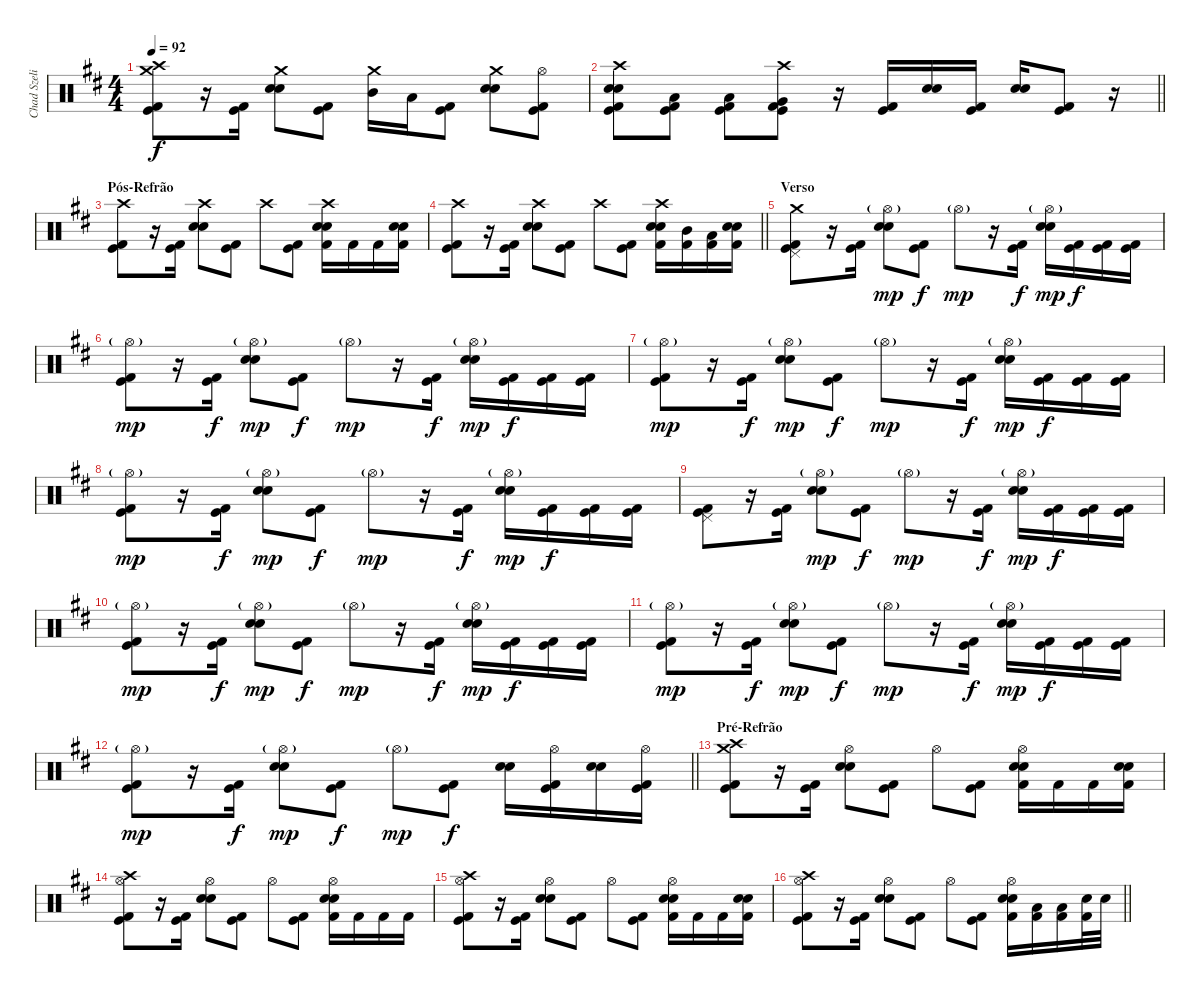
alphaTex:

\track ("Chad Szeliga" "Chad Szeli") {instrument percussion}
\staff {score}
\articulation defaults
\ts (4 4)
\tempo 92
\clef neutral
\ks d
("Crash high (hit)" "Kick (hit) 2" "Kick (hit)" "Crash medium (hit)").8{dy f} r.16 ("Kick (hit) 2" "Kick (hit)").16{beam Down} ("Crash medium (hit)" "Snare (hit) 2" "Snare (hit) 2").8 ("Kick (hit) 2" "Kick (hit)").8 ("Crash medium (hit)" "Mid Tom (hit)").16 "Low Tom (hit)".16 ("Kick (hit) 2" "Kick (hit)").8 ("Crash medium (hit)" "Snare (hit) 2" "Snare (hit) 2").8 ("Kick (hit) 2" "Kick (hit)" "Hi-Hat (open)").8 |
\barLineRight lightlight
("Crash high (hit)" "Kick (hit) 2" "Kick (hit)" "Snare (hit) 2" "Snare (hit) 2").8 ("Kick (hit) 2" "Kick (hit)" "Low Tom (hit)").8 ("Kick (hit) 2" "Kick (hit)" "Low Tom (hit)").8 ("Crash high (hit)" "Kick (hit) 2" "Kick (hit)" "Very Low Tom (hit)").8 r.16 ("Kick (hit) 2" "Kick (hit)").16 ("Snare (hit) 2" "Snare (hit) 2").16 ("Kick (hit) 2" "Kick (hit)").16 ("Snare (hit) 2" "Snare (hit) 2").16 ("Kick (hit) 2" "Kick (hit)").8 r.16 |
\section ("" "Pós-Refrão")
("Crash high (hit)" "Kick (hit) 2" "Kick (hit)").8 r.16 ("Kick (hit) 2" "Kick (hit)").16{beam Down} ("Crash high (hit)" "Snare (hit) 2" "Snare (hit) 2").8 ("Kick (hit) 2" "Kick (hit)").8 "Crash high (hit)".8 ("Kick (hit) 2" "Kick (hit)").8 ("Crash high (hit)" "Kick (hit) 2" "Snare (hit) 2" "Snare (hit) 2").16 "Kick (hit) 2".16 "Kick (hit) 2".16 ("Kick (hit) 2" "Snare (hit) 2" "Snare (hit) 2").16 |
\barLineRight lightlight
("Crash high (hit)" "Kick (hit) 2" "Kick (hit)").8 r.16 ("Kick (hit) 2" "Kick (hit)").16{beam Down} ("Crash high (hit)" "Snare (hit) 2" "Snare (hit) 2").8 ("Kick (hit) 2" "Kick (hit)").8 "Crash high (hit)".8 ("Kick (hit) 2" "Kick (hit)").8 ("Crash high (hit)" "Kick (hit) 2" "Snare (hit) 2" "Snare (hit) 2").16 ("Kick (hit) 2" "Mid Tom (hit)").16 ("Kick (hit) 2" "Low Tom (hit)").16 ("Kick (hit) 2" "Snare (hit) 2" "Snare (hit) 2").16 |
\section ("" "Verso")
("Crash medium (hit)" "Kick (hit) 2" "Kick (hit)" "Pedal Hi-Hat (hit)").8 r.16 ("Kick (hit) 2" "Kick (hit)").16{beam Down} ("Snare (hit) 2" "Snare (hit) 2" "Hi-Hat (open)"{g}).8{dy mp} ("Kick (hit) 2" "Kick (hit)").8{dy f} "Hi-Hat (open)"{g}.8{dy mp} r.16 ("Kick (hit) 2" "Kick (hit)").16{dy f beam Down} ("Snare (hit) 2" "Snare (hit) 2" "Hi-Hat (open)"{g}).16{dy mp} ("Kick (hit) 2" "Kick (hit)").16{dy f} ("Kick (hit) 2" "Kick (hit)").16 ("Kick (hit) 2" "Kick (hit)").16 |
("Kick (hit) 2" "Kick (hit)" "Hi-Hat (open)"{g}).8{dy mp} r.16 ("Kick (hit) 2" "Kick (hit)").16{dy f beam Down} ("Snare (hit) 2" "Snare (hit) 2" "Hi-Hat (open)"{g}).8{dy mp} ("Kick (hit) 2" "Kick (hit)").8{dy f} "Hi-Hat (open)"{g}.8{dy mp} r.16 ("Kick (hit) 2" "Kick (hit)").16{dy f beam Down} ("Snare (hit) 2" "Snare (hit) 2" "Hi-Hat (open)"{g}).16{dy mp} ("Kick (hit) 2" "Kick (hit)").16{dy f} ("Kick (hit) 2" "Kick (hit)").16 ("Kick (hit) 2" "Kick (hit)").16 |
("Kick (hit) 2" "Kick (hit)" "Hi-Hat (open)"{g}).8{dy mp} r.16 ("Kick (hit) 2" "Kick (hit)").16{dy f beam Down} ("Snare (hit) 2" "Snare (hit) 2" "Hi-Hat (open)"{g}).8{dy mp} ("Kick (hit) 2" "Kick (hit)").8{dy f} "Hi-Hat (open)"{g}.8{dy mp} r.16 ("Kick (hit) 2" "Kick (hit)").16{dy f beam Down} ("Snare (hit) 2" "Snare (hit) 2" "Hi-Hat (open)"{g}).16{dy mp} ("Kick (hit) 2" "Kick (hit)").16{dy f} ("Kick (hit) 2" "Kick (hit)").16 ("Kick (hit) 2" "Kick (hit)").16 |
("Kick (hit) 2" "Kick (hit)" "Hi-Hat (open)"{g}).8{dy mp} r.16 ("Kick (hit) 2" "Kick (hit)").16{dy f beam Down} ("Snare (hit) 2" "Snare (hit) 2" "Hi-Hat (open)"{g}).8{dy mp} ("Kick (hit) 2" "Kick (hit)").8{dy f} "Hi-Hat (open)"{g}.8{dy mp} r.16 ("Kick (hit) 2" "Kick (hit)").16{dy f beam Down} ("Snare (hit) 2" "Snare (hit) 2" "Hi-Hat (open)"{g}).16{dy mp} ("Kick (hit) 2" "Kick (hit)").16{dy f} ("Kick (hit) 2" "Kick (hit)").16 ("Kick (hit) 2" "Kick (hit)").16 |
("Kick (hit) 2" "Kick (hit)" "Pedal Hi-Hat (hit)").8 r.16 ("Kick (hit) 2" "Kick (hit)").16{beam Down} ("Snare (hit) 2" "Snare (hit) 2" "Hi-Hat (open)"{g}).8{dy mp} ("Kick (hit) 2" "Kick (hit)").8{dy f} "Hi-Hat (open)"{g}.8{dy mp} r.16 ("Kick (hit) 2" "Kick (hit)").16{dy f beam Down} ("Snare (hit) 2" "Snare (hit) 2" "Hi-Hat (open)"{g}).16{dy mp} ("Kick (hit) 2" "Kick (hit)").16{dy f} ("Kick (hit) 2" "Kick (hit)").16 ("Kick (hit) 2" "Kick (hit)").16 |
("Kick (hit) 2" "Kick (hit)" "Hi-Hat (open)"{g}).8{dy mp} r.16 ("Kick (hit) 2" "Kick (hit)").16{dy f beam Down} ("Snare (hit) 2" "Snare (hit) 2" "Hi-Hat (open)"{g}).8{dy mp} ("Kick (hit) 2" "Kick (hit)").8{dy f} "Hi-Hat (open)"{g}.8{dy mp} r.16 ("Kick (hit) 2" "Kick (hit)").16{dy f beam Down} ("Snare (hit) 2" "Snare (hit) 2" "Hi-Hat (open)"{g}).16{dy mp} ("Kick (hit) 2" "Kick (hit)").16{dy f} ("Kick (hit) 2" "Kick (hit)").16 ("Kick (hit) 2" "Kick (hit)").16 |
("Kick (hit) 2" "Kick (hit)" "Hi-Hat (open)"{g}).8{dy mp} r.16 ("Kick (hit) 2" "Kick (hit)").16{dy f beam Down} ("Snare (hit) 2" "Snare (hit) 2" "Hi-Hat (open)"{g}).8{dy mp} ("Kick (hit) 2" "Kick (hit)").8{dy f} "Hi-Hat (open)"{g}.8{dy mp} r.16 ("Kick (hit) 2" "Kick (hit)").16{dy f beam Down} ("Snare (hit) 2" "Snare (hit) 2" "Hi-Hat (open)"{g}).16{dy mp} ("Kick (hit) 2" "Kick (hit)").16{dy f} ("Kick (hit) 2" "Kick (hit)").16 ("Kick (hit) 2" "Kick (hit)").16 |
\barLineRight lightlight
("Kick (hit) 2" "Kick (hit)" "Hi-Hat (open)"{g}).8{dy mp} r.16 ("Kick (hit) 2" "Kick (hit)").16{dy f beam Down} ("Snare (hit) 2" "Snare (hit) 2" "Hi-Hat (open)"{g}).8{dy mp} ("Kick (hit) 2" "Kick (hit)").8{dy f} "Hi-Hat (open)"{g}.8{dy mp} ("Kick (hit) 2" "Kick (hit)").8{dy f} ("Snare (hit) 2" "Snare (hit) 2").16 ("Kick (hit) 2" "Kick (hit)" "Hi-Hat (open)").16 ("Snare (hit) 2" "Snare (hit) 2").16 ("Kick (hit) 2" "Kick (hit)" "Hi-Hat (open)").16 |
\section ("" "Pré-Refrão")
("Crash high (hit)" "Kick (hit) 2" "Kick (hit)" "Crash medium (hit)").8 r.16 ("Kick (hit) 2" "Kick (hit)").16{beam Down} ("Snare (hit) 2" "Snare (hit) 2" "Hi-Hat (open)").8 ("Kick (hit) 2" "Kick (hit)").8 "Hi-Hat (open)".8 ("Kick (hit) 2" "Kick (hit)").8 ("Kick (hit) 2" "Snare (hit) 2" "Snare (hit) 2" "Hi-Hat (open)").16 "Kick (hit) 2".16 "Kick (hit) 2".16 ("Kick (hit) 2" "Snare (hit) 2" "Snare (hit) 2").16 |
("Crash high (hit)" "Kick (hit) 2" "Kick (hit)" "Hi-Hat (open)").8 r.16 ("Kick (hit) 2" "Kick (hit)").16{beam Down} ("Snare (hit) 2" "Snare (hit) 2" "Hi-Hat (open)").8 ("Kick (hit) 2" "Kick (hit)").8 "Hi-Hat (open)".8 ("Kick (hit) 2" "Kick (hit)").8 ("Kick (hit) 2" "Snare (hit) 2" "Snare (hit) 2" "Hi-Hat (open)").16 "Kick (hit) 2".16 "Kick (hit) 2".16 "Kick (hit) 2".16 |
("Crash high (hit)" "Kick (hit) 2" "Kick (hit)" "Hi-Hat (open)").8 r.16 ("Kick (hit) 2" "Kick (hit)").16{beam Down} ("Snare (hit) 2" "Snare (hit) 2" "Hi-Hat (open)").8 ("Kick (hit) 2" "Kick (hit)").8 "Hi-Hat (open)".8 ("Kick (hit) 2" "Kick (hit)").8 ("Kick (hit) 2" "Snare (hit) 2" "Snare (hit) 2" "Hi-Hat (open)").16 "Kick (hit) 2".16 "Kick (hit) 2".16 ("Kick (hit) 2" "Snare (hit) 2" "Snare (hit) 2").16 |
\barLineRight lightlight
("Crash high (hit)" "Kick (hit) 2" "Kick (hit)" "Hi-Hat (open)").8 r.16 ("Kick (hit) 2" "Kick (hit)").16{beam Down} ("Snare (hit) 2" "Snare (hit) 2" "Hi-Hat (open)").8 ("Kick (hit) 2" "Kick (hit)").8 "Hi-Hat (open)".8 ("Kick (hit) 2" "Kick (hit)").8 ("Kick (hit) 2" "Snare (hit) 2" "Snare (hit) 2" "Hi-Hat (open)").16 ("Kick (hit) 2" "Low Tom (hit)").16 ("Kick (hit) 2" "Low Tom (hit)").16 ("Kick (hit) 2" "Snare (hit) 2").32 "Snare (hit) 2".32
